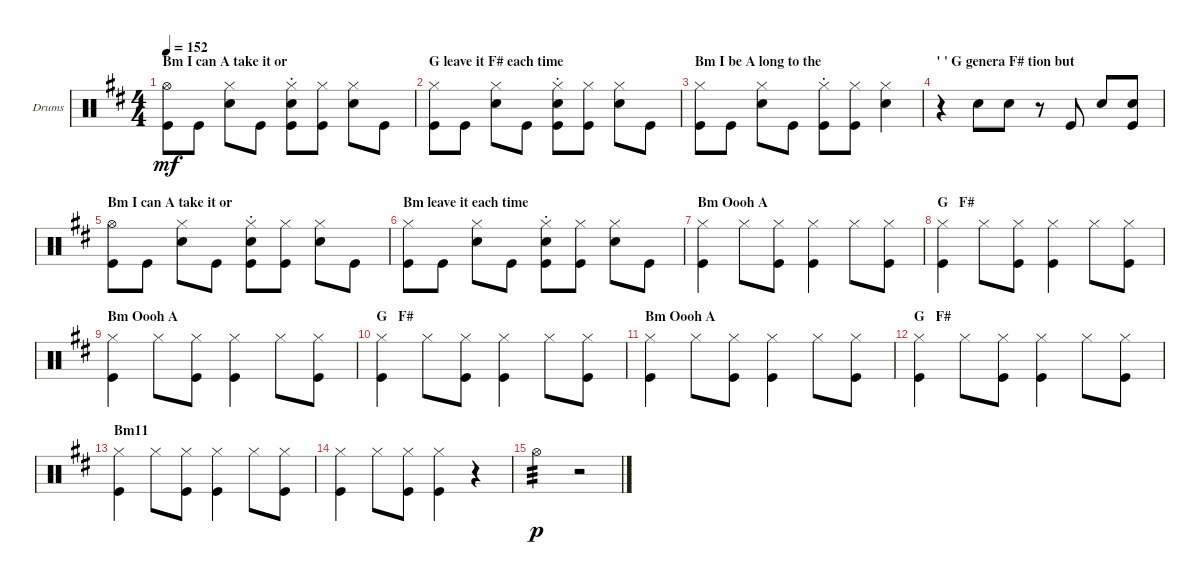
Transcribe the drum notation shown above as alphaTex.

\bracketExtendMode groupsimilarinstruments
\firstSystemTrackNameOrientation horizontal
\otherSystemsTrackNameOrientation horizontal
\track ("Drums - Marc Bell" "Drums") {instrument percussion}
\staff {score}
\articulation defaults
\ts (4 4)
\section ("" "Bm I can A take it or")
\tempo 152
\clef neutral
\ks d
("Kick (hit)" "Hi-Hat (open)").8{dy mf} "Kick (hit)".8 ("Snare (hit) 2" "Hi-Hat (closed)").8 "Kick (hit)".8 ("Snare (hit) 2" "Kick (hit)" "Hi-Hat (closed)"{st}).8 ("Kick (hit)" "Hi-Hat (closed)").8 ("Snare (hit) 2" "Hi-Hat (closed)").8 "Kick (hit)".8 |
\section ("" "G leave it F# each time")
("Kick (hit)" "Hi-Hat (closed)").8 "Kick (hit)".8 ("Snare (hit) 2" "Hi-Hat (closed)").8 "Kick (hit)".8 ("Snare (hit) 2" "Kick (hit)" "Hi-Hat (closed)"{st}).8 ("Kick (hit)" "Hi-Hat (closed)").8 ("Snare (hit) 2" "Hi-Hat (closed)").8 "Kick (hit)".8 |
\section ("" "Bm I be A long to the")
("Kick (hit)" "Hi-Hat (closed)").8 "Kick (hit)".8 ("Snare (hit) 2" "Hi-Hat (closed)").8 "Kick (hit)".8 ("Kick (hit)" "Hi-Hat (closed)"{st}).8 ("Kick (hit)" "Hi-Hat (closed)").8 ("Snare (hit) 2" "Hi-Hat (closed)").4 |
\section ("" "' ' G genera F# tion but")
r.4 "Snare (hit) 2".8 "Snare (hit) 2".8 r.8 "Kick (hit)".8 "Snare (hit) 2".8 ("Snare (hit) 2" "Kick (hit)").8 |
\section ("" "Bm I can A take it or")
("Kick (hit)" "Hi-Hat (open)").8 "Kick (hit)".8 ("Snare (hit) 2" "Hi-Hat (closed)").8 "Kick (hit)".8 ("Snare (hit) 2" "Kick (hit)" "Hi-Hat (closed)"{st}).8 ("Kick (hit)" "Hi-Hat (closed)").8 ("Snare (hit) 2" "Hi-Hat (closed)").8 "Kick (hit)".8 |
\section ("" "Bm leave it each time")
("Kick (hit)" "Hi-Hat (closed)").8 "Kick (hit)".8 ("Snare (hit) 2" "Hi-Hat (closed)").8 "Kick (hit)".8 ("Snare (hit) 2" "Kick (hit)" "Hi-Hat (closed)"{st}).8 ("Kick (hit)" "Hi-Hat (closed)").8 ("Snare (hit) 2" "Hi-Hat (closed)").8 "Kick (hit)".8 |
\section ("" "Bm Oooh A")
("Kick (hit)" "Hi-Hat (closed)").4 "Hi-Hat (closed)".8 ("Kick (hit)" "Hi-Hat (closed)").8 ("Kick (hit)" "Hi-Hat (closed)").4 "Hi-Hat (closed)".8 ("Kick (hit)" "Hi-Hat (closed)").8 |
\section ("" "G   F#")
("Kick (hit)" "Hi-Hat (closed)").4 "Hi-Hat (closed)".8 ("Kick (hit)" "Hi-Hat (closed)").8 ("Kick (hit)" "Hi-Hat (closed)").4 "Hi-Hat (closed)".8 ("Kick (hit)" "Hi-Hat (closed)").8 |
\section ("" "Bm Oooh A")
("Kick (hit)" "Hi-Hat (closed)").4 "Hi-Hat (closed)".8 ("Kick (hit)" "Hi-Hat (closed)").8 ("Kick (hit)" "Hi-Hat (closed)").4 "Hi-Hat (closed)".8 ("Kick (hit)" "Hi-Hat (closed)").8 |
\section ("" "G   F#")
("Kick (hit)" "Hi-Hat (closed)").4 "Hi-Hat (closed)".8 ("Kick (hit)" "Hi-Hat (closed)").8 ("Kick (hit)" "Hi-Hat (closed)").4 "Hi-Hat (closed)".8 ("Kick (hit)" "Hi-Hat (closed)").8 |
\section ("" "Bm Oooh A")
("Kick (hit)" "Hi-Hat (closed)").4 "Hi-Hat (closed)".8 ("Kick (hit)" "Hi-Hat (closed)").8 ("Kick (hit)" "Hi-Hat (closed)").4 "Hi-Hat (closed)".8 ("Kick (hit)" "Hi-Hat (closed)").8 |
\section ("" "G   F#")
("Kick (hit)" "Hi-Hat (closed)").4 "Hi-Hat (closed)".8 ("Kick (hit)" "Hi-Hat (closed)").8 ("Kick (hit)" "Hi-Hat (closed)").4 "Hi-Hat (closed)".8 ("Kick (hit)" "Hi-Hat (closed)").8 |
\section ("" "Bm11")
("Kick (hit)" "Hi-Hat (closed)").4 "Hi-Hat (closed)".8 ("Kick (hit)" "Hi-Hat (closed)").8 ("Kick (hit)" "Hi-Hat (closed)").4 "Hi-Hat (closed)".8 ("Kick (hit)" "Hi-Hat (closed)").8 |
("Kick (hit)" "Hi-Hat (closed)").4 "Hi-Hat (closed)".8 ("Kick (hit)" "Hi-Hat (closed)").8 ("Kick (hit)" "Hi-Hat (closed)").4 r.4 |
"Hi-Hat (open)".2{tp 3 dy p} r.2
